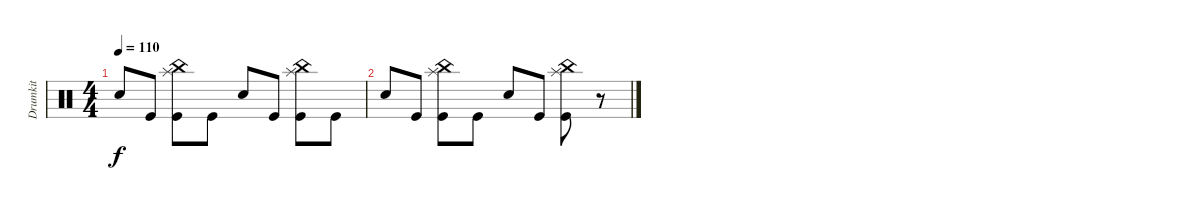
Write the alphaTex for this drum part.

\track ("Drumkit" "Drumkit") {instrument percussion}
\staff {score}
\articulation defaults
\ts (4 4)
\tempo 110
\clef neutral
\ks c "Snare (hit) 2".8{dy f} "Kick (hit)".8
("Splash (hit)" "China (hit)" "Kick (hit)").8 "Kick (hit)".8 "Snare (hit) 2".8 "Kick (hit)".8 ("Splash (hit)" "China (hit)" "Kick (hit)").8 "Kick (hit)".8 |
"Snare (hit) 2".8 "Kick (hit)".8 ("Splash (hit)" "China (hit)" "Kick (hit)").8 "Kick (hit)".8 "Snare (hit) 2".8 "Kick (hit)".8 ("Splash (hit)" "China (hit)" "Kick (hit)").8 r.8
